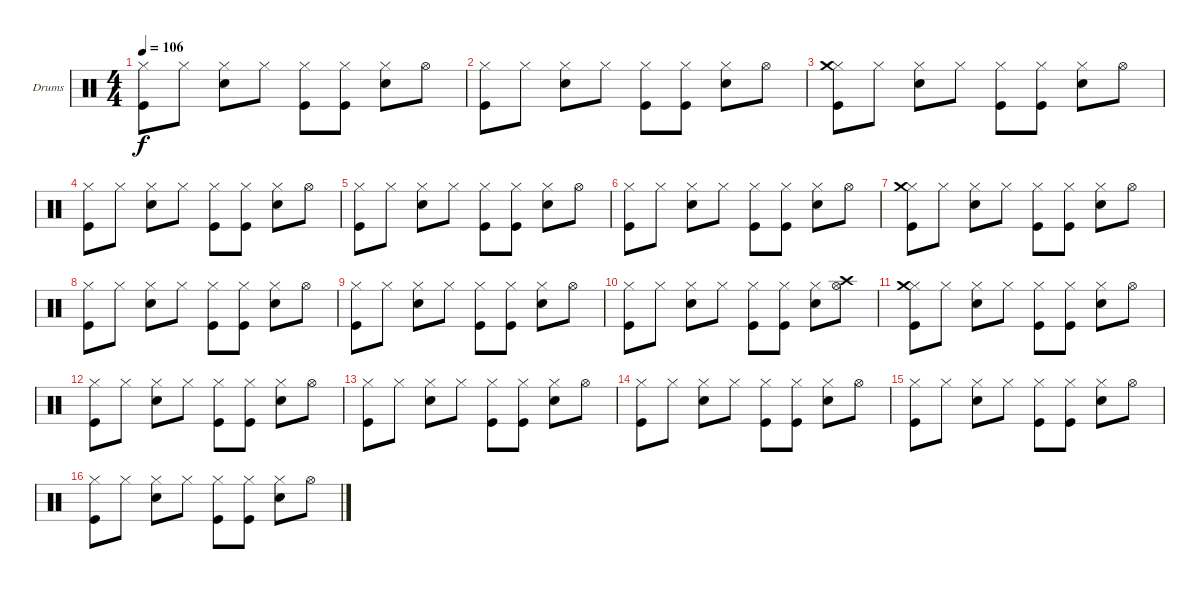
\bracketExtendMode groupsimilarinstruments
\firstSystemTrackNameOrientation horizontal
\otherSystemsTrackNameOrientation horizontal
\track ("Drumkit" "Drums") {instrument percussion}
\staff {score}
\articulation defaults
\ts (4 4)
\tempo 106
\clef neutral
\ks c
("Hi-Hat (closed)" "Kick (hit)").8{dy f} "Hi-Hat (closed)".8 ("Hi-Hat (closed)" "Snare (hit) 2").8 "Hi-Hat (closed)".8 ("Hi-Hat (closed)" "Kick (hit)").8 ("Hi-Hat (closed)" "Kick (hit)").8 ("Hi-Hat (closed)" "Snare (hit) 2").8 "Hi-Hat (open)".8 |
("Hi-Hat (closed)" "Kick (hit)").8 "Hi-Hat (closed)".8 ("Hi-Hat (closed)" "Snare (hit) 2").8 "Hi-Hat (closed)".8 ("Hi-Hat (closed)" "Kick (hit)").8 ("Hi-Hat (closed)" "Kick (hit)").8 ("Hi-Hat (closed)" "Snare (hit) 2").8 "Hi-Hat (open)".8 |
("Hi-Hat (closed)" "Crash medium (hit)" "Kick (hit)").8 "Hi-Hat (closed)".8 ("Hi-Hat (closed)" "Snare (hit) 2").8 "Hi-Hat (closed)".8 ("Hi-Hat (closed)" "Kick (hit)").8 ("Hi-Hat (closed)" "Kick (hit)").8 ("Hi-Hat (closed)" "Snare (hit) 2").8 "Hi-Hat (open)".8 |
("Hi-Hat (closed)" "Kick (hit)").8 "Hi-Hat (closed)".8 ("Hi-Hat (closed)" "Snare (hit) 2").8 "Hi-Hat (closed)".8 ("Hi-Hat (closed)" "Kick (hit)").8 ("Hi-Hat (closed)" "Kick (hit)").8 ("Hi-Hat (closed)" "Snare (hit) 2").8 "Hi-Hat (open)".8 |
("Hi-Hat (closed)" "Kick (hit)").8 "Hi-Hat (closed)".8 ("Hi-Hat (closed)" "Snare (hit) 2").8 "Hi-Hat (closed)".8 ("Hi-Hat (closed)" "Kick (hit)").8 ("Hi-Hat (closed)" "Kick (hit)").8 ("Hi-Hat (closed)" "Snare (hit) 2").8 "Hi-Hat (open)".8 |
("Hi-Hat (closed)" "Kick (hit)").8 "Hi-Hat (closed)".8 ("Hi-Hat (closed)" "Snare (hit) 2").8 "Hi-Hat (closed)".8 ("Hi-Hat (closed)" "Kick (hit)").8 ("Hi-Hat (closed)" "Kick (hit)").8 ("Hi-Hat (closed)" "Snare (hit) 2").8 "Hi-Hat (open)".8 |
("Hi-Hat (closed)" "Crash medium (hit)" "Kick (hit)").8 "Hi-Hat (closed)".8 ("Hi-Hat (closed)" "Snare (hit) 2").8 "Hi-Hat (closed)".8 ("Hi-Hat (closed)" "Kick (hit)").8 ("Hi-Hat (closed)" "Kick (hit)").8 ("Hi-Hat (closed)" "Snare (hit) 2").8 "Hi-Hat (open)".8 |
("Hi-Hat (closed)" "Kick (hit)").8 "Hi-Hat (closed)".8 ("Hi-Hat (closed)" "Snare (hit) 2").8 "Hi-Hat (closed)".8 ("Hi-Hat (closed)" "Kick (hit)").8 ("Hi-Hat (closed)" "Kick (hit)").8 ("Hi-Hat (closed)" "Snare (hit) 2").8 "Hi-Hat (open)".8 |
("Hi-Hat (closed)" "Kick (hit)").8 "Hi-Hat (closed)".8 ("Hi-Hat (closed)" "Snare (hit) 2").8 "Hi-Hat (closed)".8 ("Hi-Hat (closed)" "Kick (hit)").8 ("Hi-Hat (closed)" "Kick (hit)").8 ("Hi-Hat (closed)" "Snare (hit) 2").8 "Hi-Hat (open)".8 |
("Hi-Hat (closed)" "Kick (hit)").8 "Hi-Hat (closed)".8 ("Hi-Hat (closed)" "Snare (hit) 2").8 "Hi-Hat (closed)".8 ("Hi-Hat (closed)" "Kick (hit)").8 ("Hi-Hat (closed)" "Kick (hit)").8 ("Hi-Hat (closed)" "Snare (hit) 2").8 ("Hi-Hat (open)" "Crash high (hit)").8 |
("Hi-Hat (closed)" "Crash medium (hit)" "Kick (hit)").8 "Hi-Hat (closed)".8 ("Hi-Hat (closed)" "Snare (hit) 2").8 "Hi-Hat (closed)".8 ("Hi-Hat (closed)" "Kick (hit)").8 ("Hi-Hat (closed)" "Kick (hit)").8 ("Hi-Hat (closed)" "Snare (hit) 2").8 "Hi-Hat (open)".8 |
("Hi-Hat (closed)" "Kick (hit)").8 "Hi-Hat (closed)".8 ("Hi-Hat (closed)" "Snare (hit) 2").8 "Hi-Hat (closed)".8 ("Hi-Hat (closed)" "Kick (hit)").8 ("Hi-Hat (closed)" "Kick (hit)").8 ("Hi-Hat (closed)" "Snare (hit) 2").8 "Hi-Hat (open)".8 |
("Hi-Hat (closed)" "Kick (hit)").8 "Hi-Hat (closed)".8 ("Hi-Hat (closed)" "Snare (hit) 2").8 "Hi-Hat (closed)".8 ("Hi-Hat (closed)" "Kick (hit)").8 ("Hi-Hat (closed)" "Kick (hit)").8 ("Hi-Hat (closed)" "Snare (hit) 2").8 "Hi-Hat (open)".8 |
("Hi-Hat (closed)" "Kick (hit)").8 "Hi-Hat (closed)".8 ("Hi-Hat (closed)" "Snare (hit) 2").8 "Hi-Hat (closed)".8 ("Hi-Hat (closed)" "Kick (hit)").8 ("Hi-Hat (closed)" "Kick (hit)").8 ("Hi-Hat (closed)" "Snare (hit) 2").8 "Hi-Hat (open)".8 |
("Hi-Hat (closed)" "Kick (hit)").8 "Hi-Hat (closed)".8 ("Hi-Hat (closed)" "Snare (hit) 2").8 "Hi-Hat (closed)".8 ("Hi-Hat (closed)" "Kick (hit)").8 ("Hi-Hat (closed)" "Kick (hit)").8 ("Hi-Hat (closed)" "Snare (hit) 2").8 "Hi-Hat (open)".8 |
("Hi-Hat (closed)" "Kick (hit)").8 "Hi-Hat (closed)".8 ("Hi-Hat (closed)" "Snare (hit) 2").8 "Hi-Hat (closed)".8 ("Hi-Hat (closed)" "Kick (hit)").8 ("Hi-Hat (closed)" "Kick (hit)").8 ("Hi-Hat (closed)" "Snare (hit) 2").8 "Hi-Hat (open)".8
